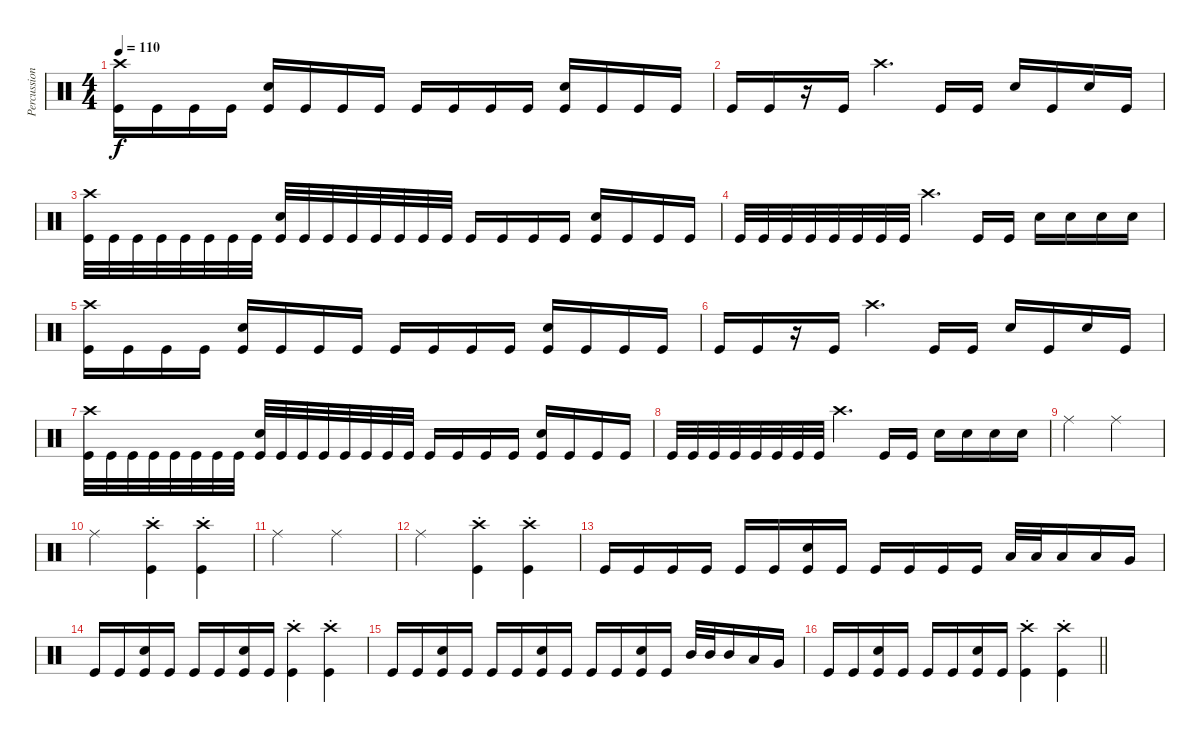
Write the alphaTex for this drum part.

\track ("Percussion" "Percussion") {instrument percussion}
\staff {score}
\articulation defaults
\ts (4 4)
\tempo 110
\clef neutral
\ks c
("Crash high (hit)" "Kick (hit)").16{dy f} "Kick (hit)".16 "Kick (hit)".16 "Kick (hit)".16 ("Electric Snare (hit)" "Kick (hit)").16 "Kick (hit)".16 "Kick (hit)".16 "Kick (hit)".16 "Kick (hit)".16 "Kick (hit)".16 "Kick (hit)".16 "Kick (hit)".16 ("Electric Snare (hit)" "Kick (hit)").16 "Kick (hit)".16 "Kick (hit)".16 "Kick (hit)".16 |
"Kick (hit)".16 "Kick (hit)".16 r.16 "Kick (hit)".16 "Crash high (hit)".4{d} "Kick (hit)".16 "Kick (hit)".16 "Electric Snare (hit)".16 "Kick (hit)".16 "Electric Snare (hit)".16 "Kick (hit)".16 |
("Crash high (hit)" "Kick (hit)").32 "Kick (hit)".32 "Kick (hit)".32 "Kick (hit)".32 "Kick (hit)".32 "Kick (hit)".32 "Kick (hit)".32 "Kick (hit)".32 ("Electric Snare (hit)" "Kick (hit)").32 "Kick (hit)".32 "Kick (hit)".32 "Kick (hit)".32 "Kick (hit)".32 "Kick (hit)".32 "Kick (hit)".32 "Kick (hit)".32 "Kick (hit)".16 "Kick (hit)".16 "Kick (hit)".16 "Kick (hit)".16 ("Electric Snare (hit)" "Kick (hit)").16 "Kick (hit)".16 "Kick (hit)".16 "Kick (hit)".16 |
"Kick (hit)".32 "Kick (hit)".32 "Kick (hit)".32 "Kick (hit)".32 "Kick (hit)".32 "Kick (hit)".32 "Kick (hit)".32 "Kick (hit)".32 "Crash high (hit)".4{d} "Kick (hit)".16 "Kick (hit)".16 "Electric Snare (hit)".16 "Electric Snare (hit)".16 "Electric Snare (hit)".16 "Electric Snare (hit)".16 |
("Crash high (hit)" "Kick (hit)").16 "Kick (hit)".16 "Kick (hit)".16 "Kick (hit)".16 ("Electric Snare (hit)" "Kick (hit)").16 "Kick (hit)".16 "Kick (hit)".16 "Kick (hit)".16 "Kick (hit)".16 "Kick (hit)".16 "Kick (hit)".16 "Kick (hit)".16 ("Electric Snare (hit)" "Kick (hit)").16 "Kick (hit)".16 "Kick (hit)".16 "Kick (hit)".16 |
"Kick (hit)".16 "Kick (hit)".16 r.16 "Kick (hit)".16 "Crash high (hit)".4{d} "Kick (hit)".16 "Kick (hit)".16 "Electric Snare (hit)".16 "Kick (hit)".16 "Electric Snare (hit)".16 "Kick (hit)".16 |
("Crash high (hit)" "Kick (hit)").32 "Kick (hit)".32 "Kick (hit)".32 "Kick (hit)".32 "Kick (hit)".32 "Kick (hit)".32 "Kick (hit)".32 "Kick (hit)".32 ("Electric Snare (hit)" "Kick (hit)").32 "Kick (hit)".32 "Kick (hit)".32 "Kick (hit)".32 "Kick (hit)".32 "Kick (hit)".32 "Kick (hit)".32 "Kick (hit)".32 "Kick (hit)".16 "Kick (hit)".16 "Kick (hit)".16 "Kick (hit)".16 ("Electric Snare (hit)" "Kick (hit)").16 "Kick (hit)".16 "Kick (hit)".16 "Kick (hit)".16 |
"Kick (hit)".32 "Kick (hit)".32 "Kick (hit)".32 "Kick (hit)".32 "Kick (hit)".32 "Kick (hit)".32 "Kick (hit)".32 "Kick (hit)".32 "Crash high (hit)".4{d} "Kick (hit)".16 "Kick (hit)".16 "Electric Snare (hit)".16 "Electric Snare (hit)".16 "Electric Snare (hit)".16 "Electric Snare (hit)".16 |
"Ride (middle)".2 "Ride (middle)".2 |
"Ride (middle)".2 ("Crash high (hit)" "Kick (hit)"{st}).4 ("Crash high (hit)" "Kick (hit)"{st}).4 |
"Ride (middle)".2 "Ride (middle)".2 |
"Ride (middle)".2 ("Crash high (hit)" "Kick (hit)"{st}).4 ("Crash high (hit)" "Kick (hit)"{st}).4 |
"Kick (hit)".16 "Kick (hit)".16 "Kick (hit)".16 "Kick (hit)".16 "Kick (hit)".16 "Kick (hit)".16 ("Electric Snare (hit)" "Kick (hit)").16 "Kick (hit)".16 "Kick (hit)".16 "Kick (hit)".16 "Kick (hit)".16 "Kick (hit)".16 "Low Floor Tom (hit)".32 "Low Floor Tom (hit)".32 "Low Floor Tom (hit)".16 "Low Tom (hit)".16 "Very Low Tom (hit)".16 |
"Kick (hit)".16 "Kick (hit)".16 ("Electric Snare (hit)" "Kick (hit)").16 "Kick (hit)".16 "Kick (hit)".16 "Kick (hit)".16 ("Electric Snare (hit)" "Kick (hit)").16 "Kick (hit)".16 ("Crash high (hit)" "Kick (hit)"{st}).4 ("Crash high (hit)" "Kick (hit)"{st}).4 |
"Kick (hit)".16 "Kick (hit)".16 ("Electric Snare (hit)" "Kick (hit)").16 "Kick (hit)".16 "Kick (hit)".16 "Kick (hit)".16 ("Electric Snare (hit)" "Kick (hit)").16 "Kick (hit)".16 "Kick (hit)".16 "Kick (hit)".16 ("Electric Snare (hit)" "Kick (hit)").16 "Kick (hit)".16 "Mid Tom (hit)".32 "Mid Tom (hit)".32 "Mid Tom (hit)".16 "Low Tom (hit)".16 "Very Low Tom (hit)".16 |
\barLineRight lightlight "Kick (hit)".16 "Kick (hit)".16
("Electric Snare (hit)" "Kick (hit)").16 "Kick (hit)".16 "Kick (hit)".16 "Kick (hit)".16 ("Electric Snare (hit)" "Kick (hit)").16 "Kick (hit)".16 ("Crash high (hit)" "Kick (hit)"{st}).4 ("Crash high (hit)" "Kick (hit)"{st}).4
